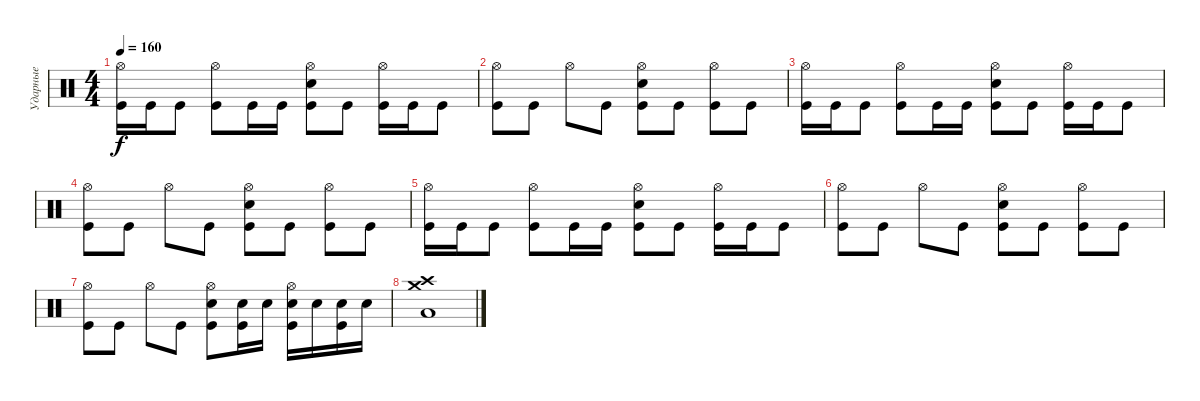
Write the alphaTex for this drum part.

\track ("Ударные" "Ударные") {instrument percussion}
\staff {score}
\articulation defaults
\ts (4 4)
\tempo 160
\clef neutral
\ks c
("Hi-Hat (open)" "Kick (hit)").16{dy f} "Kick (hit)".16 "Kick (hit)".8 ("Hi-Hat (open)" "Kick (hit)").8 "Kick (hit)".16 "Kick (hit)".16 ("Hi-Hat (open)" "Snare (hit) 2" "Kick (hit)").8 "Kick (hit)".8 ("Hi-Hat (open)" "Kick (hit)").16 "Kick (hit)".16 "Kick (hit)".8 |
("Hi-Hat (open)" "Kick (hit)").8 "Kick (hit)".8 "Hi-Hat (open)".8 "Kick (hit)".8 ("Hi-Hat (open)" "Snare (hit) 2" "Kick (hit)").8 "Kick (hit)".8 ("Hi-Hat (open)" "Kick (hit)").8 "Kick (hit)".8 |
("Hi-Hat (open)" "Kick (hit)").16 "Kick (hit)".16 "Kick (hit)".8 ("Hi-Hat (open)" "Kick (hit)").8 "Kick (hit)".16 "Kick (hit)".16 ("Hi-Hat (open)" "Snare (hit) 2" "Kick (hit)").8 "Kick (hit)".8 ("Hi-Hat (open)" "Kick (hit)").16 "Kick (hit)".16 "Kick (hit)".8 |
("Hi-Hat (open)" "Kick (hit)").8 "Kick (hit)".8 "Hi-Hat (open)".8 "Kick (hit)".8 ("Hi-Hat (open)" "Snare (hit) 2" "Kick (hit)").8 "Kick (hit)".8 ("Hi-Hat (open)" "Kick (hit)").8 "Kick (hit)".8 |
("Hi-Hat (open)" "Kick (hit)").16 "Kick (hit)".16 "Kick (hit)".8 ("Hi-Hat (open)" "Kick (hit)").8 "Kick (hit)".16 "Kick (hit)".16 ("Hi-Hat (open)" "Snare (hit) 2" "Kick (hit)").8 "Kick (hit)".8 ("Hi-Hat (open)" "Kick (hit)").16 "Kick (hit)".16 "Kick (hit)".8 |
("Hi-Hat (open)" "Kick (hit)").8 "Kick (hit)".8 "Hi-Hat (open)".8 "Kick (hit)".8 ("Hi-Hat (open)" "Snare (hit) 2" "Kick (hit)").8 "Kick (hit)".8 ("Hi-Hat (open)" "Kick (hit)").8 "Kick (hit)".8 |
("Hi-Hat (open)" "Kick (hit)").8 "Kick (hit)".8 "Hi-Hat (open)".8 "Kick (hit)".8 ("Hi-Hat (open)" "Snare (hit) 2" "Kick (hit)").8 ("Snare (hit) 2" "Kick (hit)").16 "Snare (hit) 2".16 ("Hi-Hat (open)" "Snare (hit) 2" "Kick (hit)").16 "Snare (hit) 2".16 ("Snare (hit) 2" "Kick (hit)").16 "Snare (hit) 2".16 |
("Crash medium (hit)" "Crash high (hit)" "Low Tom (hit)").1
